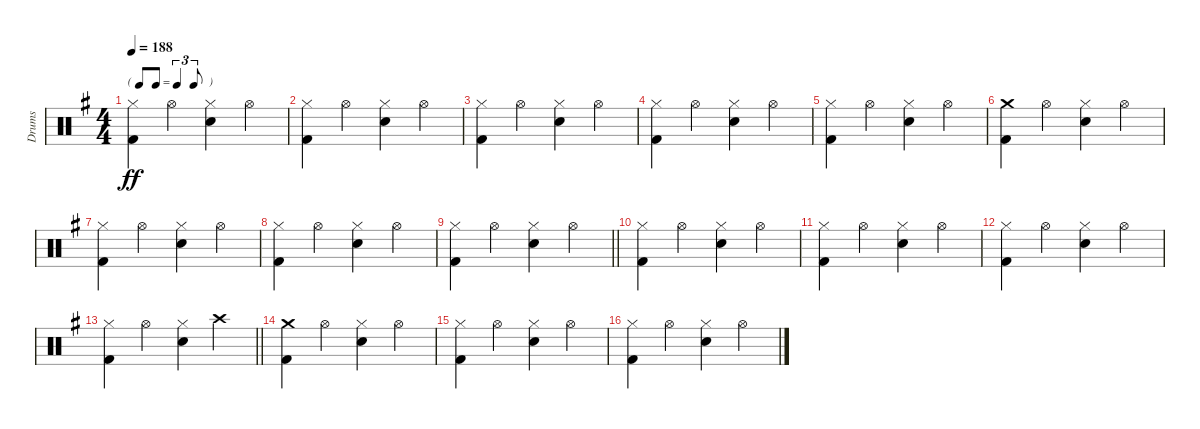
\track ("Drums" "Drums") {instrument percussion}
\staff {score}
\articulation defaults
\ts (4 4)
\tf triplet8th
\tempo 188
\clef neutral
\ks g
("Hi-Hat (closed)" "Kick (hit) 2").4{dy ff} "Hi-Hat (open)".4 ("Hi-Hat (closed)" "Snare (hit) 2").4 "Hi-Hat (open)".4 |
("Hi-Hat (closed)" "Kick (hit) 2").4 "Hi-Hat (open)".4 ("Hi-Hat (closed)" "Snare (hit) 2").4 "Hi-Hat (open)".4 |
("Hi-Hat (closed)" "Kick (hit) 2").4 "Hi-Hat (open)".4 ("Hi-Hat (closed)" "Snare (hit) 2").4 "Hi-Hat (open)".4 |
("Hi-Hat (closed)" "Kick (hit) 2").4 "Hi-Hat (open)".4 ("Hi-Hat (closed)" "Snare (hit) 2").4 "Hi-Hat (open)".4 |
("Hi-Hat (closed)" "Kick (hit) 2").4 "Hi-Hat (open)".4 ("Hi-Hat (closed)" "Snare (hit) 2").4 "Hi-Hat (open)".4 |
("Crash medium (hit)" "Kick (hit) 2").4 "Hi-Hat (open)".4 ("Hi-Hat (closed)" "Snare (hit) 2").4 "Hi-Hat (open)".4 |
("Hi-Hat (closed)" "Kick (hit) 2").4 "Hi-Hat (open)".4 ("Hi-Hat (closed)" "Snare (hit) 2").4 "Hi-Hat (open)".4 |
("Hi-Hat (closed)" "Kick (hit) 2").4 "Hi-Hat (open)".4 ("Hi-Hat (closed)" "Snare (hit) 2").4 "Hi-Hat (open)".4 |
\barLineRight lightlight
("Hi-Hat (closed)" "Kick (hit) 2").4 "Hi-Hat (open)".4 ("Hi-Hat (closed)" "Snare (hit) 2").4 "Hi-Hat (open)".4 |
("Hi-Hat (closed)" "Kick (hit) 2").4 "Hi-Hat (open)".4 ("Hi-Hat (closed)" "Snare (hit) 2").4 "Hi-Hat (open)".4 |
("Hi-Hat (closed)" "Kick (hit) 2").4 "Hi-Hat (open)".4 ("Hi-Hat (closed)" "Snare (hit) 2").4 "Hi-Hat (open)".4 |
("Hi-Hat (closed)" "Kick (hit) 2").4 "Hi-Hat (open)".4 ("Hi-Hat (closed)" "Snare (hit) 2").4 "Hi-Hat (open)".4 |
\barLineRight lightlight
("Hi-Hat (closed)" "Kick (hit) 2").4 "Hi-Hat (open)".4 ("Hi-Hat (closed)" "Snare (hit) 2").4 "Crash high (hit)".4 |
("Crash medium (hit)" "Kick (hit) 2").4 "Hi-Hat (open)".4 ("Hi-Hat (closed)" "Snare (hit) 2").4 "Hi-Hat (open)".4 |
("Hi-Hat (closed)" "Kick (hit) 2").4 "Hi-Hat (open)".4 ("Hi-Hat (closed)" "Snare (hit) 2").4 "Hi-Hat (open)".4 |
("Hi-Hat (closed)" "Kick (hit) 2").4 "Hi-Hat (open)".4 ("Hi-Hat (closed)" "Snare (hit) 2").4 "Hi-Hat (open)".4
